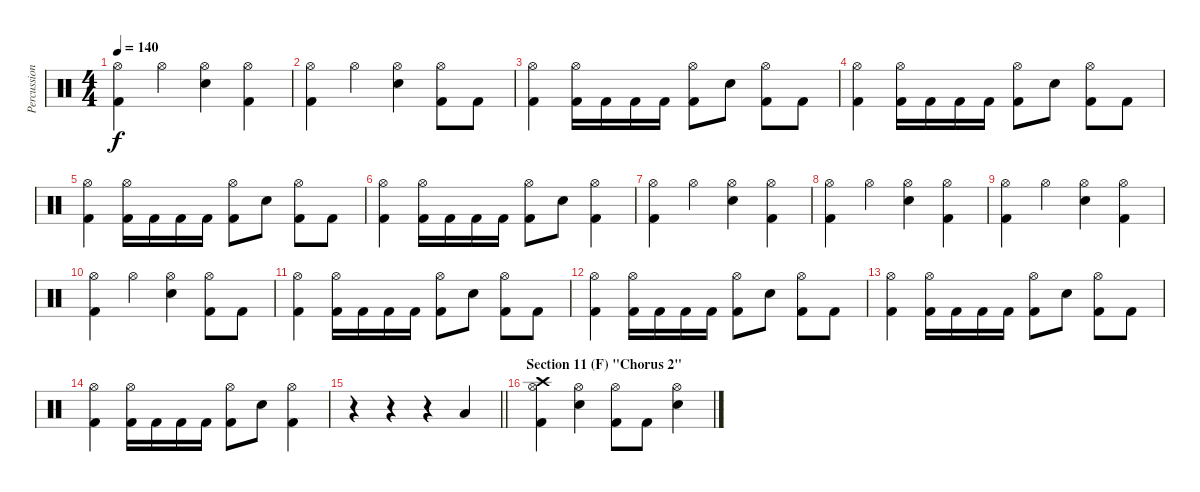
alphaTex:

\track ("Percussion" "Percussion") {instrument percussion}
\staff {score}
\articulation defaults
\ts (4 4)
\tempo 140
\clef neutral
\ks c
("Hi-Hat (open)" "Kick (hit) 2").4{dy f} "Hi-Hat (open)".4 ("Hi-Hat (open)" "Snare (hit) 2").4 ("Hi-Hat (open)" "Kick (hit) 2").4 |
("Hi-Hat (open)" "Kick (hit) 2").4 "Hi-Hat (open)".4 ("Hi-Hat (open)" "Snare (hit) 2").4 ("Hi-Hat (open)" "Kick (hit) 2").8 "Kick (hit) 2".8 |
("Hi-Hat (open)" "Kick (hit) 2").4 ("Hi-Hat (open)" "Kick (hit) 2").16 "Kick (hit) 2".16 "Kick (hit) 2".16 "Kick (hit) 2".16 ("Hi-Hat (open)" "Kick (hit) 2").8 "Snare (hit) 2".8 ("Hi-Hat (open)" "Kick (hit) 2").8 "Kick (hit) 2".8 |
("Hi-Hat (open)" "Kick (hit) 2").4 ("Hi-Hat (open)" "Kick (hit) 2").16 "Kick (hit) 2".16 "Kick (hit) 2".16 "Kick (hit) 2".16 ("Hi-Hat (open)" "Kick (hit) 2").8 "Snare (hit) 2".8 ("Hi-Hat (open)" "Kick (hit) 2").8 "Kick (hit) 2".8 |
("Hi-Hat (open)" "Kick (hit) 2").4 ("Hi-Hat (open)" "Kick (hit) 2").16 "Kick (hit) 2".16 "Kick (hit) 2".16 "Kick (hit) 2".16 ("Hi-Hat (open)" "Kick (hit) 2").8 "Snare (hit) 2".8 ("Hi-Hat (open)" "Kick (hit) 2").8 "Kick (hit) 2".8 |
("Hi-Hat (open)" "Kick (hit) 2").4 ("Hi-Hat (open)" "Kick (hit) 2").16 "Kick (hit) 2".16 "Kick (hit) 2".16 "Kick (hit) 2".16 ("Hi-Hat (open)" "Kick (hit) 2").8 "Snare (hit) 2".8 ("Hi-Hat (open)" "Kick (hit) 2").4 |
("Hi-Hat (open)" "Kick (hit) 2").4 "Hi-Hat (open)".4 ("Hi-Hat (open)" "Snare (hit) 2").4 ("Hi-Hat (open)" "Kick (hit) 2").4 |
("Hi-Hat (open)" "Kick (hit) 2").4 "Hi-Hat (open)".4 ("Hi-Hat (open)" "Snare (hit) 2").4 ("Hi-Hat (open)" "Kick (hit) 2").4 |
("Hi-Hat (open)" "Kick (hit) 2").4 "Hi-Hat (open)".4 ("Hi-Hat (open)" "Snare (hit) 2").4 ("Hi-Hat (open)" "Kick (hit) 2").4 |
("Hi-Hat (open)" "Kick (hit) 2").4 "Hi-Hat (open)".4 ("Hi-Hat (open)" "Snare (hit) 2").4 ("Hi-Hat (open)" "Kick (hit) 2").8 "Kick (hit) 2".8 |
("Hi-Hat (open)" "Kick (hit) 2").4 ("Hi-Hat (open)" "Kick (hit) 2").16 "Kick (hit) 2".16 "Kick (hit) 2".16 "Kick (hit) 2".16 ("Hi-Hat (open)" "Kick (hit) 2").8 "Snare (hit) 2".8 ("Hi-Hat (open)" "Kick (hit) 2").8 "Kick (hit) 2".8 |
("Hi-Hat (open)" "Kick (hit) 2").4 ("Hi-Hat (open)" "Kick (hit) 2").16 "Kick (hit) 2".16 "Kick (hit) 2".16 "Kick (hit) 2".16 ("Hi-Hat (open)" "Kick (hit) 2").8 "Snare (hit) 2".8 ("Hi-Hat (open)" "Kick (hit) 2").8 "Kick (hit) 2".8 |
("Hi-Hat (open)" "Kick (hit) 2").4 ("Hi-Hat (open)" "Kick (hit) 2").16 "Kick (hit) 2".16 "Kick (hit) 2".16 "Kick (hit) 2".16 ("Hi-Hat (open)" "Kick (hit) 2").8 "Snare (hit) 2".8 ("Hi-Hat (open)" "Kick (hit) 2").8 "Kick (hit) 2".8 |
("Hi-Hat (open)" "Kick (hit) 2").4 ("Hi-Hat (open)" "Kick (hit) 2").16 "Kick (hit) 2".16 "Kick (hit) 2".16 "Kick (hit) 2".16 ("Hi-Hat (open)" "Kick (hit) 2").8 "Snare (hit) 2".8 ("Hi-Hat (open)" "Kick (hit) 2").4 |
\barLineRight lightlight
r.4 r.4 r.4 "Low Tom (hit)".4 |
\section ("" "Section 11 (F) \"Chorus 2\"")
("Crash high (hit)" "Hi-Hat (open)" "Kick (hit) 2").4 ("Hi-Hat (open)" "Snare (hit) 2").4 ("Hi-Hat (open)" "Kick (hit) 2").8 "Kick (hit) 2".8 ("Hi-Hat (open)" "Snare (hit) 2").4
